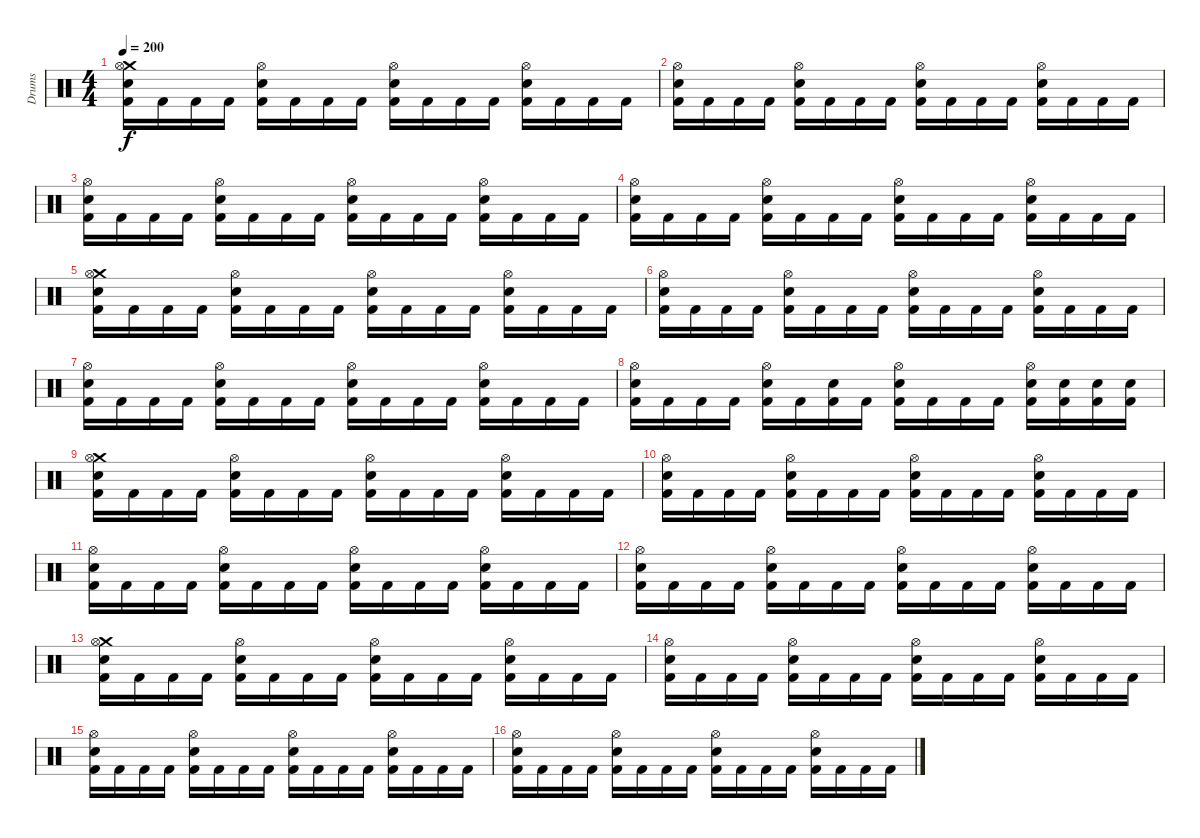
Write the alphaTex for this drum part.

\track ("Drums" "Drums") {instrument percussion}
\staff {score}
\articulation defaults
\ts (4 4)
\tempo 200
\clef neutral
\ks c
("Crash medium (hit)" "Hi-Hat (open)" "Electric Snare (hit)" "Kick (hit) 2").16{dy f} "Kick (hit) 2".16 "Kick (hit) 2".16 "Kick (hit) 2".16 ("Hi-Hat (open)" "Electric Snare (hit)" "Kick (hit) 2").16 "Kick (hit) 2".16 "Kick (hit) 2".16 "Kick (hit) 2".16 ("Hi-Hat (open)" "Electric Snare (hit)" "Kick (hit) 2").16 "Kick (hit) 2".16 "Kick (hit) 2".16 "Kick (hit) 2".16 ("Hi-Hat (open)" "Electric Snare (hit)" "Kick (hit) 2").16 "Kick (hit) 2".16 "Kick (hit) 2".16 "Kick (hit) 2".16 |
("Hi-Hat (open)" "Electric Snare (hit)" "Kick (hit) 2").16 "Kick (hit) 2".16 "Kick (hit) 2".16 "Kick (hit) 2".16 ("Hi-Hat (open)" "Electric Snare (hit)" "Kick (hit) 2").16 "Kick (hit) 2".16 "Kick (hit) 2".16 "Kick (hit) 2".16 ("Hi-Hat (open)" "Electric Snare (hit)" "Kick (hit) 2").16 "Kick (hit) 2".16 "Kick (hit) 2".16 "Kick (hit) 2".16 ("Hi-Hat (open)" "Electric Snare (hit)" "Kick (hit) 2").16 "Kick (hit) 2".16 "Kick (hit) 2".16 "Kick (hit) 2".16 |
("Hi-Hat (open)" "Electric Snare (hit)" "Kick (hit) 2").16 "Kick (hit) 2".16 "Kick (hit) 2".16 "Kick (hit) 2".16 ("Hi-Hat (open)" "Electric Snare (hit)" "Kick (hit) 2").16 "Kick (hit) 2".16 "Kick (hit) 2".16 "Kick (hit) 2".16 ("Hi-Hat (open)" "Electric Snare (hit)" "Kick (hit) 2").16 "Kick (hit) 2".16 "Kick (hit) 2".16 "Kick (hit) 2".16 ("Hi-Hat (open)" "Electric Snare (hit)" "Kick (hit) 2").16 "Kick (hit) 2".16 "Kick (hit) 2".16 "Kick (hit) 2".16 |
("Hi-Hat (open)" "Electric Snare (hit)" "Kick (hit) 2").16 "Kick (hit) 2".16 "Kick (hit) 2".16 "Kick (hit) 2".16 ("Hi-Hat (open)" "Electric Snare (hit)" "Kick (hit) 2").16 "Kick (hit) 2".16 "Kick (hit) 2".16 "Kick (hit) 2".16 ("Hi-Hat (open)" "Electric Snare (hit)" "Kick (hit) 2").16 "Kick (hit) 2".16 "Kick (hit) 2".16 "Kick (hit) 2".16 ("Hi-Hat (open)" "Electric Snare (hit)" "Kick (hit) 2").16 "Kick (hit) 2".16 "Kick (hit) 2".16 "Kick (hit) 2".16 |
("Crash medium (hit)" "Hi-Hat (open)" "Electric Snare (hit)" "Kick (hit) 2").16 "Kick (hit) 2".16 "Kick (hit) 2".16 "Kick (hit) 2".16 ("Hi-Hat (open)" "Electric Snare (hit)" "Kick (hit) 2").16 "Kick (hit) 2".16 "Kick (hit) 2".16 "Kick (hit) 2".16 ("Hi-Hat (open)" "Electric Snare (hit)" "Kick (hit) 2").16 "Kick (hit) 2".16 "Kick (hit) 2".16 "Kick (hit) 2".16 ("Hi-Hat (open)" "Electric Snare (hit)" "Kick (hit) 2").16 "Kick (hit) 2".16 "Kick (hit) 2".16 "Kick (hit) 2".16 |
("Hi-Hat (open)" "Electric Snare (hit)" "Kick (hit) 2").16 "Kick (hit) 2".16 "Kick (hit) 2".16 "Kick (hit) 2".16 ("Hi-Hat (open)" "Electric Snare (hit)" "Kick (hit) 2").16 "Kick (hit) 2".16 "Kick (hit) 2".16 "Kick (hit) 2".16 ("Hi-Hat (open)" "Electric Snare (hit)" "Kick (hit) 2").16 "Kick (hit) 2".16 "Kick (hit) 2".16 "Kick (hit) 2".16 ("Hi-Hat (open)" "Electric Snare (hit)" "Kick (hit) 2").16 "Kick (hit) 2".16 "Kick (hit) 2".16 "Kick (hit) 2".16 |
("Hi-Hat (open)" "Electric Snare (hit)" "Kick (hit) 2").16 "Kick (hit) 2".16 "Kick (hit) 2".16 "Kick (hit) 2".16 ("Hi-Hat (open)" "Electric Snare (hit)" "Kick (hit) 2").16 "Kick (hit) 2".16 "Kick (hit) 2".16 "Kick (hit) 2".16 ("Hi-Hat (open)" "Electric Snare (hit)" "Kick (hit) 2").16 "Kick (hit) 2".16 "Kick (hit) 2".16 "Kick (hit) 2".16 ("Hi-Hat (open)" "Electric Snare (hit)" "Kick (hit) 2").16 "Kick (hit) 2".16 "Kick (hit) 2".16 "Kick (hit) 2".16 |
("Hi-Hat (open)" "Electric Snare (hit)" "Kick (hit) 2").16 "Kick (hit) 2".16 "Kick (hit) 2".16 "Kick (hit) 2".16 ("Hi-Hat (open)" "Electric Snare (hit)" "Kick (hit) 2").16 "Kick (hit) 2".16 ("Electric Snare (hit)" "Kick (hit) 2").16 "Kick (hit) 2".16 ("Hi-Hat (open)" "Electric Snare (hit)" "Kick (hit) 2").16 "Kick (hit) 2".16 "Kick (hit) 2".16 "Kick (hit) 2".16 ("Hi-Hat (open)" "Electric Snare (hit)" "Kick (hit) 2").16 ("Electric Snare (hit)" "Kick (hit) 2").16 ("Electric Snare (hit)" "Kick (hit) 2").16 ("Electric Snare (hit)" "Kick (hit) 2").16 |
("Crash medium (hit)" "Hi-Hat (open)" "Electric Snare (hit)" "Kick (hit) 2").16 "Kick (hit) 2".16 "Kick (hit) 2".16 "Kick (hit) 2".16 ("Hi-Hat (open)" "Electric Snare (hit)" "Kick (hit) 2").16 "Kick (hit) 2".16 "Kick (hit) 2".16 "Kick (hit) 2".16 ("Hi-Hat (open)" "Electric Snare (hit)" "Kick (hit) 2").16 "Kick (hit) 2".16 "Kick (hit) 2".16 "Kick (hit) 2".16 ("Hi-Hat (open)" "Electric Snare (hit)" "Kick (hit) 2").16 "Kick (hit) 2".16 "Kick (hit) 2".16 "Kick (hit) 2".16 |
("Hi-Hat (open)" "Electric Snare (hit)" "Kick (hit) 2").16 "Kick (hit) 2".16 "Kick (hit) 2".16 "Kick (hit) 2".16 ("Hi-Hat (open)" "Electric Snare (hit)" "Kick (hit) 2").16 "Kick (hit) 2".16 "Kick (hit) 2".16 "Kick (hit) 2".16 ("Hi-Hat (open)" "Electric Snare (hit)" "Kick (hit) 2").16 "Kick (hit) 2".16 "Kick (hit) 2".16 "Kick (hit) 2".16 ("Hi-Hat (open)" "Electric Snare (hit)" "Kick (hit) 2").16 "Kick (hit) 2".16 "Kick (hit) 2".16 "Kick (hit) 2".16 |
("Hi-Hat (open)" "Electric Snare (hit)" "Kick (hit) 2").16 "Kick (hit) 2".16 "Kick (hit) 2".16 "Kick (hit) 2".16 ("Hi-Hat (open)" "Electric Snare (hit)" "Kick (hit) 2").16 "Kick (hit) 2".16 "Kick (hit) 2".16 "Kick (hit) 2".16 ("Hi-Hat (open)" "Electric Snare (hit)" "Kick (hit) 2").16 "Kick (hit) 2".16 "Kick (hit) 2".16 "Kick (hit) 2".16 ("Hi-Hat (open)" "Electric Snare (hit)" "Kick (hit) 2").16 "Kick (hit) 2".16 "Kick (hit) 2".16 "Kick (hit) 2".16 |
("Hi-Hat (open)" "Electric Snare (hit)" "Kick (hit) 2").16 "Kick (hit) 2".16 "Kick (hit) 2".16 "Kick (hit) 2".16 ("Hi-Hat (open)" "Electric Snare (hit)" "Kick (hit) 2").16 "Kick (hit) 2".16 "Kick (hit) 2".16 "Kick (hit) 2".16 ("Hi-Hat (open)" "Electric Snare (hit)" "Kick (hit) 2").16 "Kick (hit) 2".16 "Kick (hit) 2".16 "Kick (hit) 2".16 ("Hi-Hat (open)" "Electric Snare (hit)" "Kick (hit) 2").16 "Kick (hit) 2".16 "Kick (hit) 2".16 "Kick (hit) 2".16 |
("Crash medium (hit)" "Hi-Hat (open)" "Electric Snare (hit)" "Kick (hit) 2").16 "Kick (hit) 2".16 "Kick (hit) 2".16 "Kick (hit) 2".16 ("Hi-Hat (open)" "Electric Snare (hit)" "Kick (hit) 2").16 "Kick (hit) 2".16 "Kick (hit) 2".16 "Kick (hit) 2".16 ("Hi-Hat (open)" "Electric Snare (hit)" "Kick (hit) 2").16 "Kick (hit) 2".16 "Kick (hit) 2".16 "Kick (hit) 2".16 ("Hi-Hat (open)" "Electric Snare (hit)" "Kick (hit) 2").16 "Kick (hit) 2".16 "Kick (hit) 2".16 "Kick (hit) 2".16 |
("Hi-Hat (open)" "Electric Snare (hit)" "Kick (hit) 2").16 "Kick (hit) 2".16 "Kick (hit) 2".16 "Kick (hit) 2".16 ("Hi-Hat (open)" "Electric Snare (hit)" "Kick (hit) 2").16 "Kick (hit) 2".16 "Kick (hit) 2".16 "Kick (hit) 2".16 ("Hi-Hat (open)" "Electric Snare (hit)" "Kick (hit) 2").16 "Kick (hit) 2".16 "Kick (hit) 2".16 "Kick (hit) 2".16 ("Hi-Hat (open)" "Electric Snare (hit)" "Kick (hit) 2").16 "Kick (hit) 2".16 "Kick (hit) 2".16 "Kick (hit) 2".16 |
("Hi-Hat (open)" "Electric Snare (hit)" "Kick (hit) 2").16 "Kick (hit) 2".16 "Kick (hit) 2".16 "Kick (hit) 2".16 ("Hi-Hat (open)" "Electric Snare (hit)" "Kick (hit) 2").16 "Kick (hit) 2".16 "Kick (hit) 2".16 "Kick (hit) 2".16 ("Hi-Hat (open)" "Electric Snare (hit)" "Kick (hit) 2").16 "Kick (hit) 2".16 "Kick (hit) 2".16 "Kick (hit) 2".16 ("Hi-Hat (open)" "Electric Snare (hit)" "Kick (hit) 2").16 "Kick (hit) 2".16 "Kick (hit) 2".16 "Kick (hit) 2".16 |
("Hi-Hat (open)" "Electric Snare (hit)" "Kick (hit) 2").16 "Kick (hit) 2".16 "Kick (hit) 2".16 "Kick (hit) 2".16 ("Hi-Hat (open)" "Electric Snare (hit)" "Kick (hit) 2").16 "Kick (hit) 2".16 "Kick (hit) 2".16 "Kick (hit) 2".16 ("Hi-Hat (open)" "Electric Snare (hit)" "Kick (hit) 2").16 "Kick (hit) 2".16 "Kick (hit) 2".16 "Kick (hit) 2".16 ("Hi-Hat (open)" "Electric Snare (hit)" "Kick (hit) 2").16 "Kick (hit) 2".16 "Kick (hit) 2".16 "Kick (hit) 2".16
